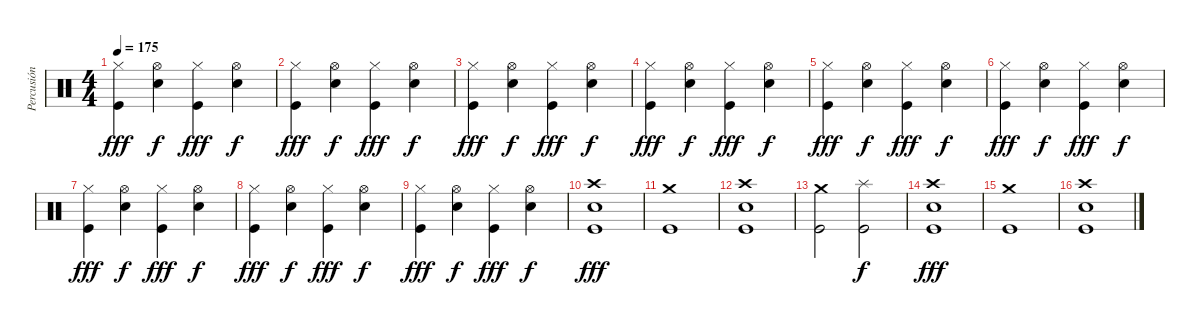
\track ("Percusión" "Percusión") {instrument percussion}
\staff {score}
\articulation defaults
\ts (4 4)
\tempo 175
\clef neutral
\ks c
("Hi-Hat (closed)" "Kick (hit)").4{dy fff} ("Hi-Hat (open)" "Electric Snare (hit)").4{dy f} ("Hi-Hat (closed)" "Kick (hit)").4{dy fff} ("Hi-Hat (open)" "Electric Snare (hit)").4{dy f} |
("Hi-Hat (closed)" "Kick (hit)").4{dy fff} ("Hi-Hat (open)" "Electric Snare (hit)").4{dy f} ("Hi-Hat (closed)" "Kick (hit)").4{dy fff} ("Hi-Hat (open)" "Electric Snare (hit)").4{dy f} |
("Hi-Hat (closed)" "Kick (hit)").4{dy fff} ("Hi-Hat (open)" "Electric Snare (hit)").4{dy f} ("Hi-Hat (closed)" "Kick (hit)").4{dy fff} ("Hi-Hat (open)" "Electric Snare (hit)").4{dy f} |
("Hi-Hat (closed)" "Kick (hit)").4{dy fff} ("Hi-Hat (open)" "Electric Snare (hit)").4{dy f} ("Hi-Hat (closed)" "Kick (hit)").4{dy fff} ("Hi-Hat (open)" "Electric Snare (hit)").4{dy f} |
("Hi-Hat (closed)" "Kick (hit)").4{dy fff} ("Hi-Hat (open)" "Electric Snare (hit)").4{dy f} ("Hi-Hat (closed)" "Kick (hit)").4{dy fff} ("Hi-Hat (open)" "Electric Snare (hit)").4{dy f} |
("Hi-Hat (closed)" "Kick (hit)").4{dy fff} ("Hi-Hat (open)" "Electric Snare (hit)").4{dy f} ("Hi-Hat (closed)" "Kick (hit)").4{dy fff} ("Hi-Hat (open)" "Electric Snare (hit)").4{dy f} |
("Hi-Hat (closed)" "Kick (hit)").4{dy fff} ("Hi-Hat (open)" "Electric Snare (hit)").4{dy f} ("Hi-Hat (closed)" "Kick (hit)").4{dy fff} ("Hi-Hat (open)" "Electric Snare (hit)").4{dy f} |
("Hi-Hat (closed)" "Kick (hit)").4{dy fff} ("Hi-Hat (open)" "Electric Snare (hit)").4{dy f} ("Hi-Hat (closed)" "Kick (hit)").4{dy fff} ("Hi-Hat (open)" "Electric Snare (hit)").4{dy f} |
("Hi-Hat (closed)" "Kick (hit)").4{dy fff} ("Hi-Hat (open)" "Electric Snare (hit)").4{dy f} ("Hi-Hat (closed)" "Kick (hit)").4{dy fff} ("Hi-Hat (open)" "Electric Snare (hit)").4{dy f} |
("Crash high (hit)" "Electric Snare (hit)" "Kick (hit)").1{dy fff} |
("Crash medium (hit)" "Kick (hit)").1 |
("Crash high (hit)" "Electric Snare (hit)" "Kick (hit)").1 |
("Crash medium (hit)" "Kick (hit)").2 ("Splash (hit)" "Kick (hit)").2{dy f} |
("Crash high (hit)" "Electric Snare (hit)" "Kick (hit)").1{dy fff} |
("Crash medium (hit)" "Kick (hit)").1 |
("Crash high (hit)" "Electric Snare (hit)" "Kick (hit)").1
